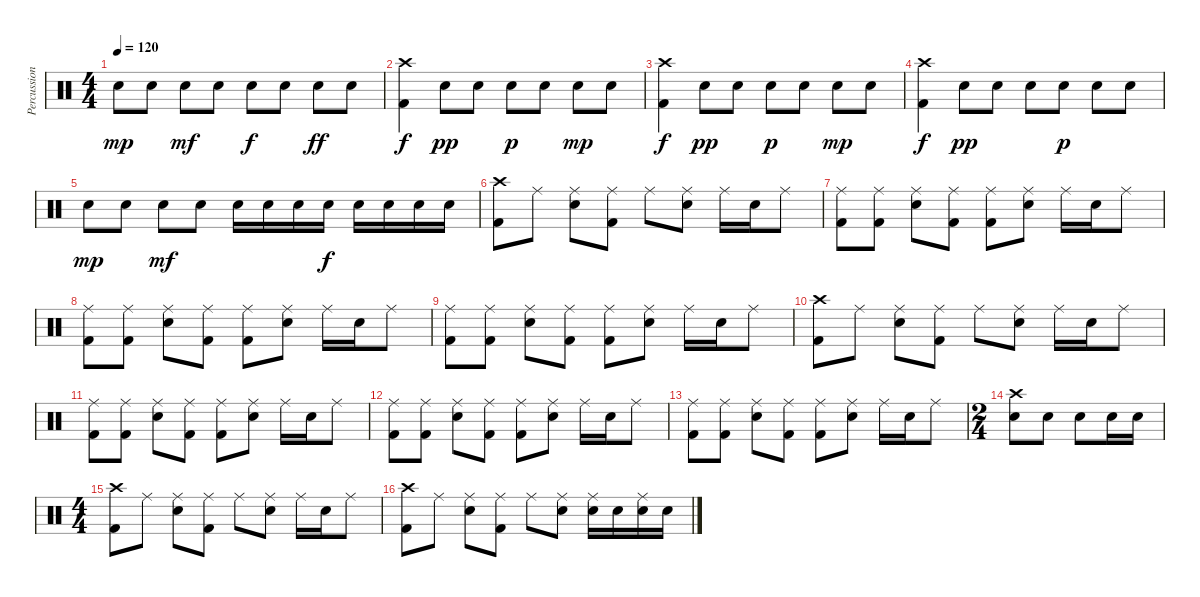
\track ("Percussions" "Percussion") {instrument percussion}
\staff {score}
\articulation defaults
\ts (4 4)
\tempo 120
\clef neutral
\ks c "Electric Snare (hit)".8{dy mp} "Electric Snare (hit)".8 "Electric Snare (hit)".8{dy mf} "Electric Snare (hit)".8 "Electric Snare (hit)".8{dy f} "Electric Snare (hit)".8 "Electric Snare (hit)".8{dy ff} "Electric Snare (hit)".8
|
("Crash high (hit)" "Kick (hit) 2").4{dy f} "Electric Snare (hit)".8{dy pp} "Electric Snare (hit)".8 "Electric Snare (hit)".8{dy p} "Electric Snare (hit)".8 "Electric Snare (hit)".8{dy mp} "Electric Snare (hit)".8 |
("Crash high (hit)" "Kick (hit) 2").4{dy f} "Electric Snare (hit)".8{dy pp} "Electric Snare (hit)".8 "Electric Snare (hit)".8{dy p} "Electric Snare (hit)".8 "Electric Snare (hit)".8{dy mp} "Electric Snare (hit)".8 |
("Crash high (hit)" "Kick (hit) 2").4{dy f} "Electric Snare (hit)".8{dy pp} "Electric Snare (hit)".8 "Electric Snare (hit)".8 "Electric Snare (hit)".8{dy p} "Electric Snare (hit)".8 "Electric Snare (hit)".8 |
"Electric Snare (hit)".8{dy mp} "Electric Snare (hit)".8 "Electric Snare (hit)".8{dy mf} "Electric Snare (hit)".8 "Electric Snare (hit)".16 "Electric Snare (hit)".16 "Electric Snare (hit)".16 "Electric Snare (hit)".16{dy f} "Electric Snare (hit)".16 "Electric Snare (hit)".16 "Electric Snare (hit)".16 "Electric Snare (hit)".16 |
("Crash high (hit)" "Kick (hit) 2").8 "Ride (middle)".8 ("Ride (middle)" "Snare (hit) 2").8 ("Ride (middle)" "Kick (hit) 2").8 "Ride (middle)".8 ("Ride (middle)" "Snare (hit) 2").8 "Ride (middle)".16 "Snare (hit) 2".16 "Ride (middle)".8 |
("Ride (middle)" "Kick (hit) 2").8 ("Ride (middle)" "Kick (hit) 2").8 ("Ride (middle)" "Snare (hit) 2").8 ("Ride (middle)" "Kick (hit) 2").8 ("Ride (middle)" "Kick (hit) 2").8 ("Ride (middle)" "Snare (hit) 2").8 "Ride (middle)".16 "Snare (hit) 2".16 "Ride (middle)".8 |
("Ride (middle)" "Kick (hit) 2").8 ("Ride (middle)" "Kick (hit) 2").8 ("Ride (middle)" "Snare (hit) 2").8 ("Ride (middle)" "Kick (hit) 2").8 ("Ride (middle)" "Kick (hit) 2").8 ("Ride (middle)" "Snare (hit) 2").8 "Ride (middle)".16 "Snare (hit) 2".16 "Ride (middle)".8 |
("Ride (middle)" "Kick (hit) 2").8 ("Ride (middle)" "Kick (hit) 2").8 ("Ride (middle)" "Snare (hit) 2").8 ("Ride (middle)" "Kick (hit) 2").8 ("Ride (middle)" "Kick (hit) 2").8 ("Ride (middle)" "Snare (hit) 2").8 "Ride (middle)".16 "Snare (hit) 2".16 "Ride (middle)".8 |
("Crash high (hit)" "Kick (hit) 2").8 "Ride (middle)".8 ("Ride (middle)" "Snare (hit) 2").8 ("Ride (middle)" "Kick (hit) 2").8 "Ride (middle)".8 ("Ride (middle)" "Snare (hit) 2").8 "Ride (middle)".16 "Snare (hit) 2".16 "Ride (middle)".8 |
("Ride (middle)" "Kick (hit) 2").8 ("Ride (middle)" "Kick (hit) 2").8 ("Ride (middle)" "Snare (hit) 2").8 ("Ride (middle)" "Kick (hit) 2").8 ("Ride (middle)" "Kick (hit) 2").8 ("Ride (middle)" "Snare (hit) 2").8 "Ride (middle)".16 "Snare (hit) 2".16 "Ride (middle)".8 |
("Ride (middle)" "Kick (hit) 2").8 ("Ride (middle)" "Kick (hit) 2").8 ("Ride (middle)" "Snare (hit) 2").8 ("Ride (middle)" "Kick (hit) 2").8 ("Ride (middle)" "Kick (hit) 2").8 ("Ride (middle)" "Snare (hit) 2").8 "Ride (middle)".16 "Snare (hit) 2".16 "Ride (middle)".8 |
("Ride (middle)" "Kick (hit) 2").8 ("Ride (middle)" "Kick (hit) 2").8 ("Ride (middle)" "Snare (hit) 2").8 ("Ride (middle)" "Kick (hit) 2").8 ("Ride (middle)" "Kick (hit) 2").8 ("Ride (middle)" "Snare (hit) 2").8 "Ride (middle)".16 "Snare (hit) 2".16 "Ride (middle)".8 |
\ts (2 4)
("Crash high (hit)" "Snare (hit) 2").8 "Snare (hit) 2".8 "Snare (hit) 2".8 "Snare (hit) 2".16 "Snare (hit) 2".16 |
\ts (4 4)
("Crash high (hit)" "Kick (hit) 2").8 "Ride (middle)".8 ("Ride (middle)" "Snare (hit) 2").8 ("Ride (middle)" "Kick (hit) 2").8 "Ride (middle)".8 ("Ride (middle)" "Snare (hit) 2").8 "Ride (middle)".16 "Snare (hit) 2".16 "Ride (middle)".8 |
("Crash high (hit)" "Kick (hit) 2").8 "Ride (middle)".8 ("Ride (middle)" "Snare (hit) 2").8 ("Ride (middle)" "Kick (hit) 2").8 "Ride (middle)".8 ("Ride (middle)" "Snare (hit) 2").8 ("Ride (middle)" "Snare (hit) 2").16 "Snare (hit) 2".16 ("Ride (middle)" "Snare (hit) 2").16 "Snare (hit) 2".16
